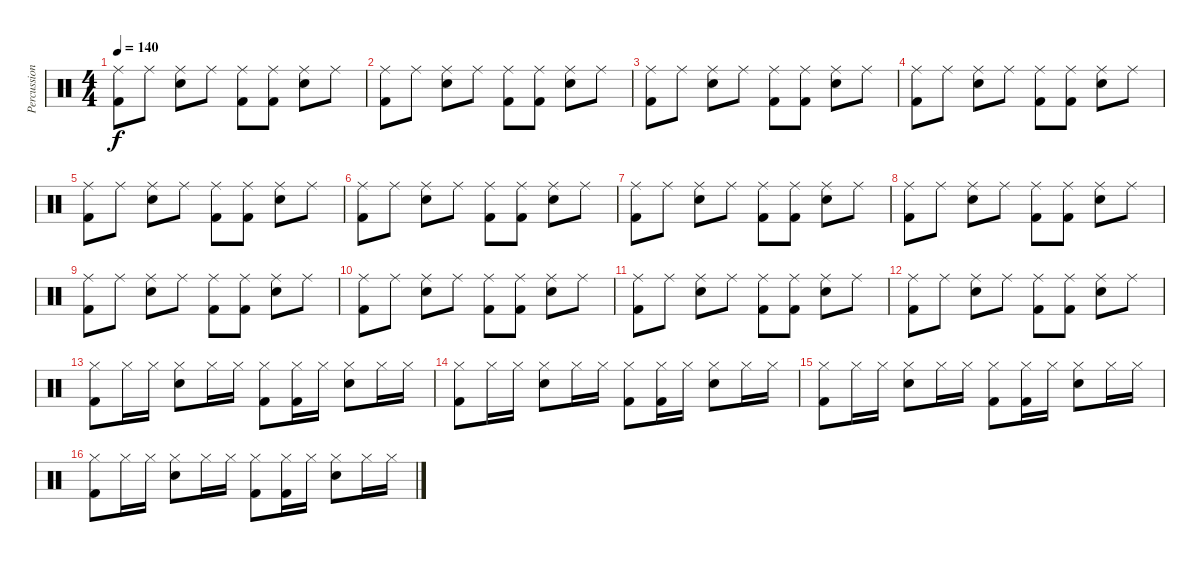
\track ("Percussion" "Percussion") {instrument percussion}
\staff {score}
\articulation defaults
\ts (4 4)
\tempo 140
\clef neutral
\ks c
("Ride (middle)" "Kick (hit) 2").8{dy f} "Ride (middle)".8 ("Ride (middle)" "Snare (hit) 2").8 "Ride (middle)".8 ("Ride (middle)" "Kick (hit) 2").8 ("Ride (middle)" "Kick (hit) 2").8 ("Ride (middle)" "Snare (hit) 2").8 "Ride (middle)".8 |
("Ride (middle)" "Kick (hit) 2").8 "Ride (middle)".8 ("Ride (middle)" "Snare (hit) 2").8 "Ride (middle)".8 ("Ride (middle)" "Kick (hit) 2").8 ("Ride (middle)" "Kick (hit) 2").8 ("Ride (middle)" "Snare (hit) 2").8 "Ride (middle)".8 |
("Ride (middle)" "Kick (hit) 2").8 "Ride (middle)".8 ("Ride (middle)" "Snare (hit) 2").8 "Ride (middle)".8 ("Ride (middle)" "Kick (hit) 2").8 ("Ride (middle)" "Kick (hit) 2").8 ("Ride (middle)" "Snare (hit) 2").8 "Ride (middle)".8 |
("Ride (middle)" "Kick (hit) 2").8 "Ride (middle)".8 ("Ride (middle)" "Snare (hit) 2").8 "Ride (middle)".8 ("Ride (middle)" "Kick (hit) 2").8 ("Ride (middle)" "Kick (hit) 2").8 ("Ride (middle)" "Snare (hit) 2").8 "Ride (middle)".8 |
("Ride (middle)" "Kick (hit) 2").8 "Ride (middle)".8 ("Ride (middle)" "Snare (hit) 2").8 "Ride (middle)".8 ("Ride (middle)" "Kick (hit) 2").8 ("Ride (middle)" "Kick (hit) 2").8 ("Ride (middle)" "Snare (hit) 2").8 "Ride (middle)".8 |
("Ride (middle)" "Kick (hit) 2").8 "Ride (middle)".8 ("Ride (middle)" "Snare (hit) 2").8 "Ride (middle)".8 ("Ride (middle)" "Kick (hit) 2").8 ("Ride (middle)" "Kick (hit) 2").8 ("Ride (middle)" "Snare (hit) 2").8 "Ride (middle)".8 |
("Ride (middle)" "Kick (hit) 2").8 "Ride (middle)".8 ("Ride (middle)" "Snare (hit) 2").8 "Ride (middle)".8 ("Ride (middle)" "Kick (hit) 2").8 ("Ride (middle)" "Kick (hit) 2").8 ("Ride (middle)" "Snare (hit) 2").8 "Ride (middle)".8 |
("Ride (middle)" "Kick (hit) 2").8 "Ride (middle)".8 ("Ride (middle)" "Snare (hit) 2").8 "Ride (middle)".8 ("Ride (middle)" "Kick (hit) 2").8 ("Ride (middle)" "Kick (hit) 2").8 ("Ride (middle)" "Snare (hit) 2").8 "Ride (middle)".8 |
("Ride (middle)" "Kick (hit) 2").8 "Ride (middle)".8 ("Ride (middle)" "Snare (hit) 2").8 "Ride (middle)".8 ("Ride (middle)" "Kick (hit) 2").8 ("Ride (middle)" "Kick (hit) 2").8 ("Ride (middle)" "Snare (hit) 2").8 "Ride (middle)".8 |
("Ride (middle)" "Kick (hit) 2").8 "Ride (middle)".8 ("Ride (middle)" "Snare (hit) 2").8 "Ride (middle)".8 ("Ride (middle)" "Kick (hit) 2").8 ("Ride (middle)" "Kick (hit) 2").8 ("Ride (middle)" "Snare (hit) 2").8 "Ride (middle)".8 |
("Ride (middle)" "Kick (hit) 2").8 "Ride (middle)".8 ("Ride (middle)" "Snare (hit) 2").8 "Ride (middle)".8 ("Ride (middle)" "Kick (hit) 2").8 ("Ride (middle)" "Kick (hit) 2").8 ("Ride (middle)" "Snare (hit) 2").8 "Ride (middle)".8 |
("Ride (middle)" "Kick (hit) 2").8 "Ride (middle)".8 ("Ride (middle)" "Snare (hit) 2").8 "Ride (middle)".8 ("Ride (middle)" "Kick (hit) 2").8 ("Ride (middle)" "Kick (hit) 2").8 ("Ride (middle)" "Snare (hit) 2").8 "Ride (middle)".8 |
("Hi-Hat (closed)" "Kick (hit) 2").8 "Hi-Hat (closed)".16 "Hi-Hat (closed)".16 ("Hi-Hat (closed)" "Snare (hit) 2").8 "Hi-Hat (closed)".16 "Hi-Hat (closed)".16 ("Hi-Hat (closed)" "Kick (hit) 2").8 ("Hi-Hat (closed)" "Kick (hit) 2").16 "Hi-Hat (closed)".16 ("Hi-Hat (closed)" "Snare (hit) 2").8 "Hi-Hat (closed)".16 "Hi-Hat (closed)".16 |
("Hi-Hat (closed)" "Kick (hit) 2").8 "Hi-Hat (closed)".16 "Hi-Hat (closed)".16 ("Hi-Hat (closed)" "Snare (hit) 2").8 "Hi-Hat (closed)".16 "Hi-Hat (closed)".16 ("Hi-Hat (closed)" "Kick (hit) 2").8 ("Hi-Hat (closed)" "Kick (hit) 2").16 "Hi-Hat (closed)".16 ("Hi-Hat (closed)" "Snare (hit) 2").8 "Hi-Hat (closed)".16 "Hi-Hat (closed)".16 |
("Hi-Hat (closed)" "Kick (hit) 2").8 "Hi-Hat (closed)".16 "Hi-Hat (closed)".16 ("Hi-Hat (closed)" "Snare (hit) 2").8 "Hi-Hat (closed)".16 "Hi-Hat (closed)".16 ("Hi-Hat (closed)" "Kick (hit) 2").8 ("Hi-Hat (closed)" "Kick (hit) 2").16 "Hi-Hat (closed)".16 ("Hi-Hat (closed)" "Snare (hit) 2").8 "Hi-Hat (closed)".16 "Hi-Hat (closed)".16 |
("Hi-Hat (closed)" "Kick (hit) 2").8 "Hi-Hat (closed)".16 "Hi-Hat (closed)".16 ("Hi-Hat (closed)" "Snare (hit) 2").8 "Hi-Hat (closed)".16 "Hi-Hat (closed)".16 ("Hi-Hat (closed)" "Kick (hit) 2").8 ("Hi-Hat (closed)" "Kick (hit) 2").16 "Hi-Hat (closed)".16 ("Hi-Hat (closed)" "Snare (hit) 2").8 "Hi-Hat (closed)".16 "Hi-Hat (closed)".16
